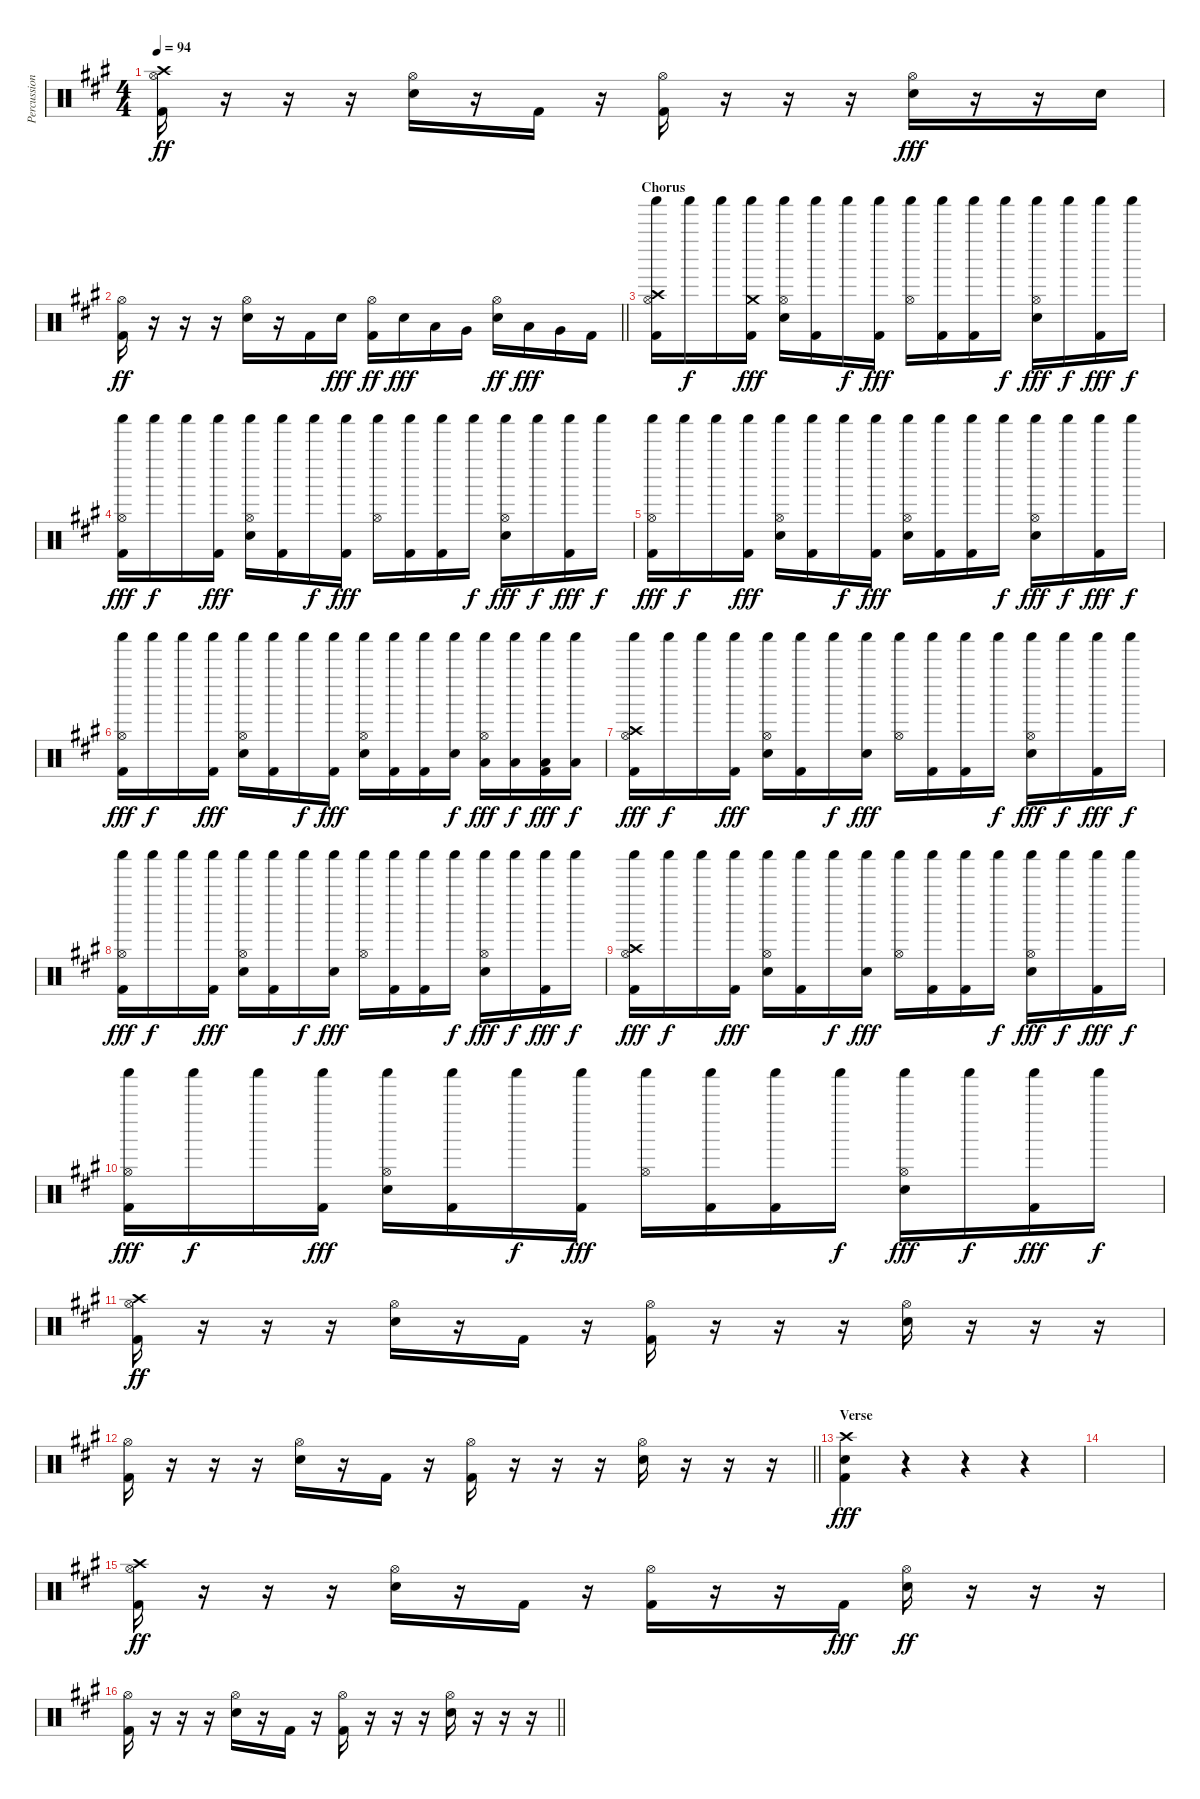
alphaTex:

\track ("Percussion" "Percussion") {instrument percussion}
\staff {score}
\articulation defaults
\ts (4 4)
\tempo 94
\clef neutral
\ks a
("Crash high (hit)" "Hi-Hat (open)" "Kick (hit) 2").16{dy ff} r.16 r.16 r.16 ("Hi-Hat (open)" "Snare (hit) 2").16 r.16 "Kick (hit) 2".16 r.16 ("Hi-Hat (open)" "Kick (hit) 2").16 r.16 r.16 r.16 ("Hi-Hat (open)" "Snare (hit) 2").16{dy fff} r.16 r.16 "Snare (hit) 2".16 |
\barLineRight lightlight
("Hi-Hat (open)" "Kick (hit) 2").16{dy ff} r.16 r.16 r.16 ("Hi-Hat (open)" "Snare (hit) 2").16 r.16 "Kick (hit) 2".16 "Snare (hit) 2".16{dy fff} ("Hi-Hat (open)" "Kick (hit) 2").16{dy ff} "Snare (hit) 2".16{dy fff} "Low Tom (hit)".16 "Very Low Tom (hit)".16 ("Hi-Hat (open)" "Snare (hit) 2").16{dy ff} "Low Tom (hit)".16{dy fff} "Very Low Tom (hit)".16 "Kick (hit) 2".16 |
\section ("" "Chorus")
("Shaker (hit)" "Hi-Hat (open)" "Crash high (hit)" "Kick (hit) 2").16 "Shaker (hit)".16{dy f} "Shaker (hit)".16 ("Shaker (hit)" "Kick (hit) 2" "Crash medium (hit)").16{dy fff} ("Shaker (hit)" "Hi-Hat (open)" "Snare (hit) 2").16 ("Shaker (hit)" "Kick (hit) 2").16 "Shaker (hit)".16{dy f} ("Shaker (hit)" "Kick (hit) 2").16{dy fff} ("Shaker (hit)" "Hi-Hat (open)").16 ("Shaker (hit)" "Kick (hit) 2").16 ("Shaker (hit)" "Kick (hit) 2").16 "Shaker (hit)".16{dy f} ("Shaker (hit)" "Hi-Hat (open)" "Snare (hit) 2").16{dy fff} "Shaker (hit)".16{dy f} ("Shaker (hit)" "Kick (hit) 2").16{dy fff} "Shaker (hit)".16{dy f} |
("Shaker (hit)" "Hi-Hat (open)" "Kick (hit) 2").16{dy fff} "Shaker (hit)".16{dy f} "Shaker (hit)".16 ("Shaker (hit)" "Kick (hit) 2").16{dy fff} ("Shaker (hit)" "Hi-Hat (open)" "Snare (hit) 2").16 ("Shaker (hit)" "Kick (hit) 2").16 "Shaker (hit)".16{dy f} ("Shaker (hit)" "Kick (hit) 2").16{dy fff} ("Shaker (hit)" "Hi-Hat (open)").16 ("Shaker (hit)" "Kick (hit) 2").16 ("Shaker (hit)" "Kick (hit) 2").16 "Shaker (hit)".16{dy f} ("Shaker (hit)" "Hi-Hat (open)" "Snare (hit) 2").16{dy fff} "Shaker (hit)".16{dy f} ("Shaker (hit)" "Kick (hit) 2").16{dy fff} "Shaker (hit)".16{dy f} |
("Shaker (hit)" "Hi-Hat (open)" "Kick (hit) 2").16{dy fff} "Shaker (hit)".16{dy f} "Shaker (hit)".16 ("Shaker (hit)" "Kick (hit) 2").16{dy fff} ("Shaker (hit)" "Hi-Hat (open)" "Snare (hit) 2").16 ("Shaker (hit)" "Kick (hit) 2").16 "Shaker (hit)".16{dy f} ("Shaker (hit)" "Kick (hit) 2").16{dy fff} ("Shaker (hit)" "Hi-Hat (open)" "Snare (hit) 2").16 ("Shaker (hit)" "Kick (hit) 2").16 ("Shaker (hit)" "Kick (hit) 2").16 "Shaker (hit)".16{dy f} ("Shaker (hit)" "Hi-Hat (open)" "Snare (hit) 2").16{dy fff} "Shaker (hit)".16{dy f} ("Shaker (hit)" "Kick (hit) 2").16{dy fff} "Shaker (hit)".16{dy f} |
("Shaker (hit)" "Hi-Hat (open)" "Kick (hit) 2").16{dy fff} "Shaker (hit)".16{dy f} "Shaker (hit)".16 ("Shaker (hit)" "Kick (hit) 2").16{dy fff} ("Shaker (hit)" "Hi-Hat (open)" "Snare (hit) 2").16 ("Shaker (hit)" "Kick (hit) 2").16 "Shaker (hit)".16{dy f} ("Shaker (hit)" "Kick (hit) 2").16{dy fff} ("Shaker (hit)" "Hi-Hat (open)" "Snare (hit) 2").16 ("Shaker (hit)" "Kick (hit) 2").16 ("Shaker (hit)" "Kick (hit) 2").16 ("Shaker (hit)" "Snare (hit) 2").16{dy f} ("Shaker (hit)" "Hi-Hat (open)" "Low Tom (hit)").16{dy fff} ("Shaker (hit)" "Low Tom (hit)").16{dy f} ("Shaker (hit)" "Low Tom (hit)" "Kick (hit) 2").16{dy fff} ("Shaker (hit)" "Low Tom (hit)").16{dy f} |
("Shaker (hit)" "Hi-Hat (open)" "Crash high (hit)" "Kick (hit) 2").16{dy fff} "Shaker (hit)".16{dy f} "Shaker (hit)".16 ("Shaker (hit)" "Kick (hit) 2").16{dy fff} ("Shaker (hit)" "Hi-Hat (open)" "Snare (hit) 2").16 ("Shaker (hit)" "Kick (hit) 2").16 "Shaker (hit)".16{dy f} ("Shaker (hit)" "Snare (hit) 2").16{dy fff} ("Shaker (hit)" "Hi-Hat (open)").16 ("Shaker (hit)" "Kick (hit) 2").16 ("Shaker (hit)" "Kick (hit) 2").16 "Shaker (hit)".16{dy f} ("Shaker (hit)" "Hi-Hat (open)" "Snare (hit) 2").16{dy fff} "Shaker (hit)".16{dy f} ("Shaker (hit)" "Kick (hit) 2").16{dy fff} "Shaker (hit)".16{dy f} |
("Shaker (hit)" "Hi-Hat (open)" "Kick (hit) 2").16{dy fff} "Shaker (hit)".16{dy f} "Shaker (hit)".16 ("Shaker (hit)" "Kick (hit) 2").16{dy fff} ("Shaker (hit)" "Hi-Hat (open)" "Snare (hit) 2").16 ("Shaker (hit)" "Kick (hit) 2").16 "Shaker (hit)".16{dy f} ("Shaker (hit)" "Snare (hit) 2").16{dy fff} ("Shaker (hit)" "Hi-Hat (open)").16 ("Shaker (hit)" "Kick (hit) 2").16 ("Shaker (hit)" "Kick (hit) 2").16 "Shaker (hit)".16{dy f} ("Shaker (hit)" "Hi-Hat (open)" "Snare (hit) 2").16{dy fff} "Shaker (hit)".16{dy f} ("Shaker (hit)" "Kick (hit) 2").16{dy fff} "Shaker (hit)".16{dy f} |
("Shaker (hit)" "Hi-Hat (open)" "Crash high (hit)" "Kick (hit) 2").16{dy fff} "Shaker (hit)".16{dy f} "Shaker (hit)".16 ("Shaker (hit)" "Kick (hit) 2").16{dy fff} ("Shaker (hit)" "Hi-Hat (open)" "Snare (hit) 2").16 ("Shaker (hit)" "Kick (hit) 2").16 "Shaker (hit)".16{dy f} ("Shaker (hit)" "Snare (hit) 2").16{dy fff} ("Shaker (hit)" "Hi-Hat (open)").16 ("Shaker (hit)" "Kick (hit) 2").16 ("Shaker (hit)" "Kick (hit) 2").16 "Shaker (hit)".16{dy f} ("Shaker (hit)" "Hi-Hat (open)" "Snare (hit) 2").16{dy fff} "Shaker (hit)".16{dy f} ("Shaker (hit)" "Kick (hit) 2").16{dy fff} "Shaker (hit)".16{dy f} |
("Shaker (hit)" "Hi-Hat (open)" "Kick (hit) 2").16{dy fff} "Shaker (hit)".16{dy f} "Shaker (hit)".16 ("Shaker (hit)" "Kick (hit) 2").16{dy fff} ("Shaker (hit)" "Hi-Hat (open)" "Snare (hit) 2").16 ("Shaker (hit)" "Kick (hit) 2").16 "Shaker (hit)".16{dy f} ("Shaker (hit)" "Kick (hit) 2").16{dy fff} ("Shaker (hit)" "Hi-Hat (open)").16 ("Shaker (hit)" "Kick (hit) 2").16 ("Shaker (hit)" "Kick (hit) 2").16 "Shaker (hit)".16{dy f} ("Shaker (hit)" "Hi-Hat (open)" "Snare (hit) 2").16{dy fff} "Shaker (hit)".16{dy f} ("Shaker (hit)" "Kick (hit) 2").16{dy fff} "Shaker (hit)".16{dy f} |
("Crash high (hit)" "Hi-Hat (open)" "Kick (hit) 2").16{dy ff} r.16 r.16 r.16 ("Hi-Hat (open)" "Snare (hit) 2").16 r.16 "Kick (hit) 2".16 r.16 ("Hi-Hat (open)" "Kick (hit) 2").16 r.16 r.16 r.16 ("Hi-Hat (open)" "Snare (hit) 2").16 r.16 r.16 r.16 |
\barLineRight lightlight
("Hi-Hat (open)" "Kick (hit) 2").16 r.16 r.16 r.16 ("Hi-Hat (open)" "Snare (hit) 2").16 r.16 "Kick (hit) 2".16 r.16 ("Hi-Hat (open)" "Kick (hit) 2").16 r.16 r.16 r.16 ("Hi-Hat (open)" "Snare (hit) 2").16 r.16 r.16 r.16 |
\section ("" "Verse")
("Crash high (hit)" "Snare (hit) 2" "Kick (hit) 2").4{dy fff} r.4 r.4 r.4 |
|
("Crash high (hit)" "Hi-Hat (open)" "Kick (hit) 2").16{dy ff} r.16 r.16 r.16 ("Hi-Hat (open)" "Snare (hit) 2").16 r.16 "Kick (hit) 2".16 r.16 ("Hi-Hat (open)" "Kick (hit) 2").16 r.16 r.16 "Kick (hit) 2".16{dy fff} ("Hi-Hat (open)" "Snare (hit) 2").16{dy ff} r.16 r.16 r.16 |
\barLineRight lightlight
("Hi-Hat (open)" "Kick (hit) 2").16 r.16 r.16 r.16 ("Hi-Hat (open)" "Snare (hit) 2").16 r.16 "Kick (hit) 2".16 r.16 ("Hi-Hat (open)" "Kick (hit) 2").16 r.16 r.16 r.16 ("Hi-Hat (open)" "Snare (hit) 2").16 r.16 r.16 r.16
